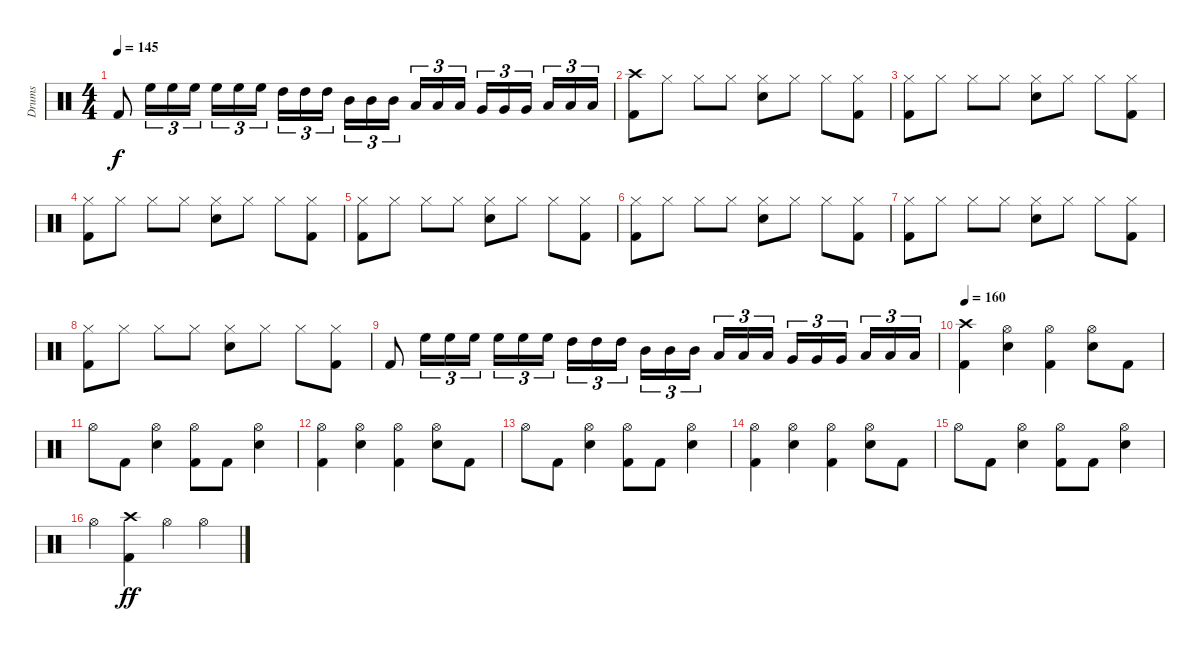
\track ("Drums" "Drums") {instrument percussion}
\staff {score}
\articulation defaults
\ts (4 4)
\tempo 145
\clef neutral
\ks c "Kick (hit) 2".8{dy f} "High Floor Tom (hit)".16{tu (3 2)} "High Floor Tom (hit)".16{tu (3 2)} "High Floor Tom (hit)".16{tu (3 2)} "High Floor Tom (hit)".16{tu (3 2)} "High Floor Tom (hit)".16{tu (3 2)} "High Floor Tom (hit)".16{tu (3 2) beam splitsecondary} "High Tom (hit)".16{tu (3 2)} "High Tom (hit)".16{tu (3 2)} "High Tom (hit)".16{tu (3 2)} "Mid Tom (hit)".16{tu (3 2)} "Mid Tom (hit)".16{tu (3 2)} "Mid Tom (hit)".16{tu (3 2) beam splitsecondary} "Low Tom (hit)".16{tu (3 2)} "Low Tom (hit)".16{tu (3 2)} "Low Tom (hit)".16{tu (3 2)} "Very Low Tom (hit)".16{tu (3 2)} "Very Low Tom (hit)".16{tu (3 2)} "Very Low Tom (hit)".16{tu (3 2) beam splitsecondary} "Low Floor Tom (hit)".16{tu (3 2)} "Low Floor Tom (hit)".16{tu (3 2)} "Low Floor Tom (hit)".16{tu (3 2)}
|
("Crash high (hit)" "Kick (hit) 2").8 "Hi-Hat (closed)".8 "Hi-Hat (closed)".8 "Hi-Hat (closed)".8 ("Hi-Hat (closed)" "Electric Snare (hit)").8 "Hi-Hat (closed)".8 "Hi-Hat (closed)".8 ("Hi-Hat (closed)" "Kick (hit) 2").8 |
("Hi-Hat (closed)" "Kick (hit) 2").8 "Hi-Hat (closed)".8 "Hi-Hat (closed)".8 "Hi-Hat (closed)".8 ("Hi-Hat (closed)" "Electric Snare (hit)").8 "Hi-Hat (closed)".8 "Hi-Hat (closed)".8 ("Hi-Hat (closed)" "Kick (hit) 2").8 |
("Hi-Hat (closed)" "Kick (hit) 2").8 "Hi-Hat (closed)".8 "Hi-Hat (closed)".8 "Hi-Hat (closed)".8 ("Hi-Hat (closed)" "Electric Snare (hit)").8 "Hi-Hat (closed)".8 "Hi-Hat (closed)".8 ("Hi-Hat (closed)" "Kick (hit) 2").8 |
("Hi-Hat (closed)" "Kick (hit) 2").8 "Hi-Hat (closed)".8 "Hi-Hat (closed)".8 "Hi-Hat (closed)".8 ("Hi-Hat (closed)" "Electric Snare (hit)").8 "Hi-Hat (closed)".8 "Hi-Hat (closed)".8 ("Hi-Hat (closed)" "Kick (hit) 2").8 |
("Hi-Hat (closed)" "Kick (hit) 2").8 "Hi-Hat (closed)".8 "Hi-Hat (closed)".8 "Hi-Hat (closed)".8 ("Hi-Hat (closed)" "Electric Snare (hit)").8 "Hi-Hat (closed)".8 "Hi-Hat (closed)".8 ("Hi-Hat (closed)" "Kick (hit) 2").8 |
("Hi-Hat (closed)" "Kick (hit) 2").8 "Hi-Hat (closed)".8 "Hi-Hat (closed)".8 "Hi-Hat (closed)".8 ("Hi-Hat (closed)" "Electric Snare (hit)").8 "Hi-Hat (closed)".8 "Hi-Hat (closed)".8 ("Hi-Hat (closed)" "Kick (hit) 2").8 |
("Hi-Hat (closed)" "Kick (hit) 2").8 "Hi-Hat (closed)".8 "Hi-Hat (closed)".8 "Hi-Hat (closed)".8 ("Hi-Hat (closed)" "Electric Snare (hit)").8 "Hi-Hat (closed)".8 "Hi-Hat (closed)".8 ("Hi-Hat (closed)" "Kick (hit) 2").8 |
"Kick (hit) 2".8 "High Floor Tom (hit)".16{tu (3 2)} "High Floor Tom (hit)".16{tu (3 2)} "High Floor Tom (hit)".16{tu (3 2)} "High Floor Tom (hit)".16{tu (3 2)} "High Floor Tom (hit)".16{tu (3 2)} "High Floor Tom (hit)".16{tu (3 2) beam splitsecondary} "High Tom (hit)".16{tu (3 2)} "High Tom (hit)".16{tu (3 2)} "High Tom (hit)".16{tu (3 2)} "Mid Tom (hit)".16{tu (3 2)} "Mid Tom (hit)".16{tu (3 2)} "Mid Tom (hit)".16{tu (3 2) beam splitsecondary} "Low Tom (hit)".16{tu (3 2)} "Low Tom (hit)".16{tu (3 2)} "Low Tom (hit)".16{tu (3 2)} "Very Low Tom (hit)".16{tu (3 2)} "Very Low Tom (hit)".16{tu (3 2)} "Very Low Tom (hit)".16{tu (3 2) beam splitsecondary} "Low Floor Tom (hit)".16{tu (3 2)} "Low Floor Tom (hit)".16{tu (3 2)} "Low Floor Tom (hit)".16{tu (3 2)} |
\tempo 160
("Crash high (hit)" "Kick (hit) 2").4 ("Hi-Hat (open)" "Electric Snare (hit)").4 ("Hi-Hat (open)" "Kick (hit) 2").4 ("Hi-Hat (open)" "Electric Snare (hit)").8 "Kick (hit) 2".8 |
"Hi-Hat (open)".8 "Kick (hit) 2".8 ("Hi-Hat (open)" "Electric Snare (hit)").4 ("Hi-Hat (open)" "Kick (hit) 2").8 "Kick (hit) 2".8 ("Hi-Hat (open)" "Electric Snare (hit)").4 |
("Hi-Hat (open)" "Kick (hit) 2").4 ("Hi-Hat (open)" "Electric Snare (hit)").4 ("Hi-Hat (open)" "Kick (hit) 2").4 ("Hi-Hat (open)" "Electric Snare (hit)").8 "Kick (hit) 2".8 |
"Hi-Hat (open)".8 "Kick (hit) 2".8 ("Hi-Hat (open)" "Electric Snare (hit)").4 ("Hi-Hat (open)" "Kick (hit) 2").8 "Kick (hit) 2".8 ("Hi-Hat (open)" "Electric Snare (hit)").4 |
("Hi-Hat (open)" "Kick (hit) 2").4 ("Hi-Hat (open)" "Electric Snare (hit)").4 ("Hi-Hat (open)" "Kick (hit) 2").4 ("Hi-Hat (open)" "Electric Snare (hit)").8 "Kick (hit) 2".8 |
"Hi-Hat (open)".8 "Kick (hit) 2".8 ("Hi-Hat (open)" "Electric Snare (hit)").4 ("Hi-Hat (open)" "Kick (hit) 2").8 "Kick (hit) 2".8 ("Hi-Hat (open)" "Electric Snare (hit)").4 |
"Hi-Hat (open)".4 ("Crash high (hit)" "Kick (hit) 2").4{dy ff} "Hi-Hat (open)".4 "Hi-Hat (open)".4
